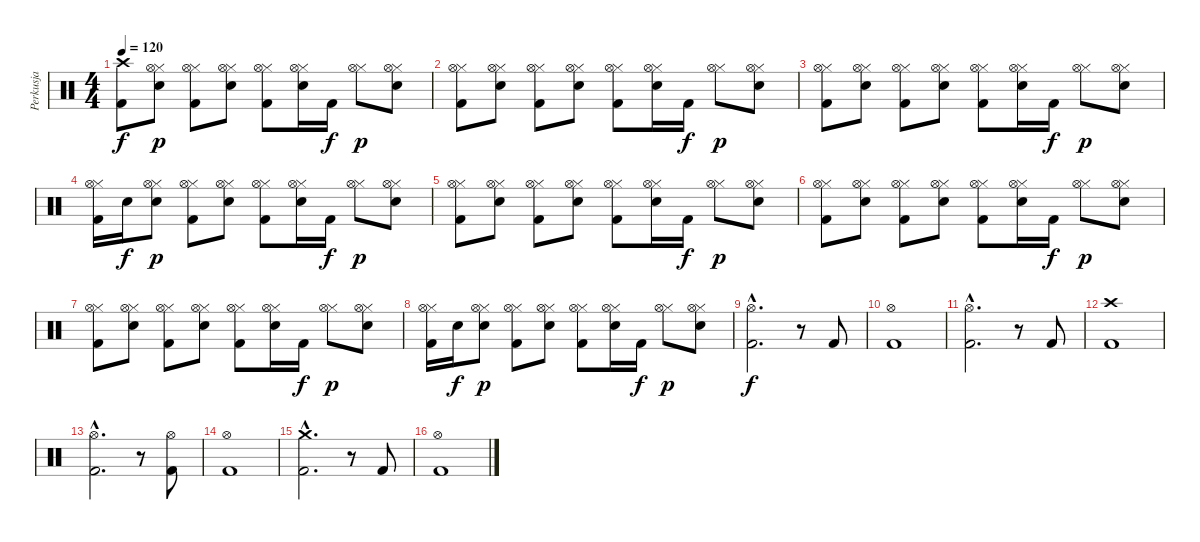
\track ("Perkusja" "Perkusja") {instrument percussion}
\staff {score}
\articulation defaults
\ts (4 4)
\tempo 120
\clef neutral
\ks c
("Kick (hit) 2" "Crash high (hit)").8{dy f} ("Electric Snare (hit)" "Hi-Hat (closed)" "Hi-Hat (open)").8{dy p} ("Kick (hit) 2" "Hi-Hat (closed)" "Hi-Hat (open)").8 ("Electric Snare (hit)" "Hi-Hat (closed)" "Hi-Hat (open)").8 ("Kick (hit) 2" "Hi-Hat (closed)" "Hi-Hat (open)").8 ("Electric Snare (hit)" "Hi-Hat (closed)" "Hi-Hat (open)").16 "Kick (hit) 2".16{dy f} ("Hi-Hat (closed)" "Hi-Hat (open)").8{dy p} ("Electric Snare (hit)" "Hi-Hat (closed)" "Hi-Hat (open)").8 |
("Kick (hit) 2" "Hi-Hat (closed)" "Hi-Hat (open)").8 ("Electric Snare (hit)" "Hi-Hat (closed)" "Hi-Hat (open)").8 ("Kick (hit) 2" "Hi-Hat (closed)" "Hi-Hat (open)").8 ("Electric Snare (hit)" "Hi-Hat (closed)" "Hi-Hat (open)").8 ("Kick (hit) 2" "Hi-Hat (closed)" "Hi-Hat (open)").8 ("Electric Snare (hit)" "Hi-Hat (closed)" "Hi-Hat (open)").16 "Kick (hit) 2".16{dy f} ("Hi-Hat (closed)" "Hi-Hat (open)").8{dy p} ("Electric Snare (hit)" "Hi-Hat (closed)" "Hi-Hat (open)").8 |
("Kick (hit) 2" "Hi-Hat (closed)" "Hi-Hat (open)").8 ("Electric Snare (hit)" "Hi-Hat (closed)" "Hi-Hat (open)").8 ("Kick (hit) 2" "Hi-Hat (closed)" "Hi-Hat (open)").8 ("Electric Snare (hit)" "Hi-Hat (closed)" "Hi-Hat (open)").8 ("Kick (hit) 2" "Hi-Hat (closed)" "Hi-Hat (open)").8 ("Electric Snare (hit)" "Hi-Hat (closed)" "Hi-Hat (open)").16 "Kick (hit) 2".16{dy f} ("Hi-Hat (closed)" "Hi-Hat (open)").8{dy p} ("Electric Snare (hit)" "Hi-Hat (closed)" "Hi-Hat (open)").8 |
("Kick (hit) 2" "Hi-Hat (closed)" "Hi-Hat (open)").16 "Electric Snare (hit)".16{dy f} ("Electric Snare (hit)" "Hi-Hat (closed)" "Hi-Hat (open)").8{dy p} ("Kick (hit) 2" "Hi-Hat (closed)" "Hi-Hat (open)").8 ("Electric Snare (hit)" "Hi-Hat (closed)" "Hi-Hat (open)").8 ("Kick (hit) 2" "Hi-Hat (closed)" "Hi-Hat (open)").8 ("Electric Snare (hit)" "Hi-Hat (closed)" "Hi-Hat (open)").16 "Kick (hit) 2".16{dy f} ("Hi-Hat (closed)" "Hi-Hat (open)").8{dy p} ("Electric Snare (hit)" "Hi-Hat (closed)" "Hi-Hat (open)").8 |
("Kick (hit) 2" "Hi-Hat (closed)" "Hi-Hat (open)").8 ("Electric Snare (hit)" "Hi-Hat (closed)" "Hi-Hat (open)").8 ("Kick (hit) 2" "Hi-Hat (closed)" "Hi-Hat (open)").8 ("Electric Snare (hit)" "Hi-Hat (closed)" "Hi-Hat (open)").8 ("Kick (hit) 2" "Hi-Hat (closed)" "Hi-Hat (open)").8 ("Electric Snare (hit)" "Hi-Hat (closed)" "Hi-Hat (open)").16 "Kick (hit) 2".16{dy f} ("Hi-Hat (closed)" "Hi-Hat (open)").8{dy p} ("Electric Snare (hit)" "Hi-Hat (closed)" "Hi-Hat (open)").8 |
("Kick (hit) 2" "Hi-Hat (closed)" "Hi-Hat (open)").8 ("Electric Snare (hit)" "Hi-Hat (closed)" "Hi-Hat (open)").8 ("Kick (hit) 2" "Hi-Hat (closed)" "Hi-Hat (open)").8 ("Electric Snare (hit)" "Hi-Hat (closed)" "Hi-Hat (open)").8 ("Kick (hit) 2" "Hi-Hat (closed)" "Hi-Hat (open)").8 ("Electric Snare (hit)" "Hi-Hat (closed)" "Hi-Hat (open)").16 "Kick (hit) 2".16{dy f} ("Hi-Hat (closed)" "Hi-Hat (open)").8{dy p} ("Electric Snare (hit)" "Hi-Hat (closed)" "Hi-Hat (open)").8 |
("Kick (hit) 2" "Hi-Hat (closed)" "Hi-Hat (open)").8 ("Electric Snare (hit)" "Hi-Hat (closed)" "Hi-Hat (open)").8 ("Kick (hit) 2" "Hi-Hat (closed)" "Hi-Hat (open)").8 ("Electric Snare (hit)" "Hi-Hat (closed)" "Hi-Hat (open)").8 ("Kick (hit) 2" "Hi-Hat (closed)" "Hi-Hat (open)").8 ("Electric Snare (hit)" "Hi-Hat (closed)" "Hi-Hat (open)").16 "Kick (hit) 2".16{dy f} ("Hi-Hat (closed)" "Hi-Hat (open)").8{dy p} ("Electric Snare (hit)" "Hi-Hat (closed)" "Hi-Hat (open)").8 |
("Kick (hit) 2" "Hi-Hat (closed)" "Hi-Hat (open)").16 "Electric Snare (hit)".16{dy f} ("Electric Snare (hit)" "Hi-Hat (closed)" "Hi-Hat (open)").8{dy p} ("Kick (hit) 2" "Hi-Hat (closed)" "Hi-Hat (open)").8 ("Electric Snare (hit)" "Hi-Hat (closed)" "Hi-Hat (open)").8 ("Kick (hit) 2" "Hi-Hat (closed)" "Hi-Hat (open)").8 ("Electric Snare (hit)" "Hi-Hat (closed)" "Hi-Hat (open)").16 "Kick (hit) 2".16{dy f} ("Hi-Hat (closed)" "Hi-Hat (open)").8{dy p} ("Electric Snare (hit)" "Hi-Hat (closed)" "Hi-Hat (open)").8 |
("Kick (hit) 2"{hac} "Hi-Hat (open)"{hac}).2{d dy f} r.8 "Kick (hit) 2".8 |
("Kick (hit) 2" "Hi-Hat (open)").1 |
("Kick (hit) 2"{hac} "Hi-Hat (open)"{hac}).2{d} r.8 "Kick (hit) 2".8 |
("Kick (hit) 2" "Crash high (hit)").1 |
("Kick (hit) 2"{hac} "Hi-Hat (open)"{hac}).2{d} r.8 ("Kick (hit) 2" "Hi-Hat (open)").8 |
("Kick (hit) 2" "Hi-Hat (open)").1 |
("Kick (hit) 2"{hac} "Crash medium (hit)"{hac}).2{d} r.8 "Kick (hit) 2".8 |
("Kick (hit) 2" "Hi-Hat (open)").1
